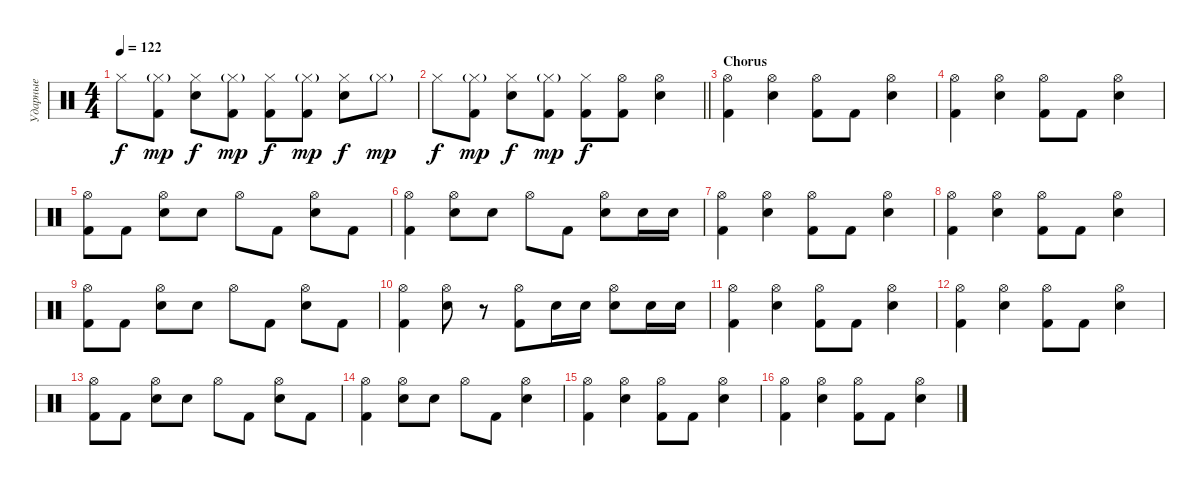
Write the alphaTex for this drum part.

\track ("Ударные" "Ударные") {instrument percussion}
\staff {score}
\articulation defaults
\ts (4 4)
\tempo 122
\clef neutral
\ks c "Hi-Hat (closed)".8{dy f}
("Hi-Hat (closed)"{g} "Kick (hit) 2").8{dy mp} ("Hi-Hat (closed)" "Electric Snare (hit)").8{dy f} ("Hi-Hat (closed)"{g} "Kick (hit) 2").8{dy mp} ("Hi-Hat (closed)" "Kick (hit) 2").8{dy f} ("Hi-Hat (closed)"{g} "Kick (hit) 2").8{dy mp} ("Hi-Hat (closed)" "Electric Snare (hit)").8{dy f} "Hi-Hat (closed)"{g}.8{dy mp} |
\barLineRight lightlight "Hi-Hat (closed)".8{dy f}
("Hi-Hat (closed)"{g} "Kick (hit) 2").8{dy mp} ("Hi-Hat (closed)" "Electric Snare (hit)").8{dy f} ("Hi-Hat (closed)"{g} "Kick (hit) 2").8{dy mp} ("Hi-Hat (closed)" "Kick (hit) 2").8{dy f} ("Hi-Hat (open)" "Kick (hit) 2").8 ("Hi-Hat (open)" "Electric Snare (hit)").4 |
\section ("" "Chorus")
("Hi-Hat (open)" "Kick (hit) 2").4 ("Hi-Hat (open)" "Electric Snare (hit)").4 ("Hi-Hat (open)" "Kick (hit) 2").8 "Kick (hit) 2".8 ("Hi-Hat (open)" "Electric Snare (hit)").4 |
("Hi-Hat (open)" "Kick (hit) 2").4 ("Hi-Hat (open)" "Electric Snare (hit)").4 ("Hi-Hat (open)" "Kick (hit) 2").8 "Kick (hit) 2".8 ("Hi-Hat (open)" "Electric Snare (hit)").4 |
("Hi-Hat (open)" "Kick (hit) 2").8 "Kick (hit) 2".8 ("Hi-Hat (open)" "Electric Snare (hit)").8 "Electric Snare (hit)".8 "Hi-Hat (open)".8 "Kick (hit) 2".8 ("Hi-Hat (open)" "Electric Snare (hit)").8 "Kick (hit) 2".8 |
("Hi-Hat (open)" "Kick (hit) 2").4 ("Hi-Hat (open)" "Electric Snare (hit)").8 "Electric Snare (hit)".8 "Hi-Hat (open)".8 "Kick (hit) 2".8 ("Hi-Hat (open)" "Electric Snare (hit)").8 "Electric Snare (hit)".16 "Electric Snare (hit)".16 |
("Hi-Hat (open)" "Kick (hit) 2").4 ("Hi-Hat (open)" "Electric Snare (hit)").4 ("Hi-Hat (open)" "Kick (hit) 2").8 "Kick (hit) 2".8 ("Hi-Hat (open)" "Electric Snare (hit)").4 |
("Hi-Hat (open)" "Kick (hit) 2").4 ("Hi-Hat (open)" "Electric Snare (hit)").4 ("Hi-Hat (open)" "Kick (hit) 2").8 "Kick (hit) 2".8 ("Hi-Hat (open)" "Electric Snare (hit)").4 |
("Hi-Hat (open)" "Kick (hit) 2").8 "Kick (hit) 2".8 ("Hi-Hat (open)" "Electric Snare (hit)").8 "Electric Snare (hit)".8 "Hi-Hat (open)".8 "Kick (hit) 2".8 ("Hi-Hat (open)" "Electric Snare (hit)").8 "Kick (hit) 2".8 |
("Hi-Hat (open)" "Kick (hit) 2").4 ("Hi-Hat (open)" "Electric Snare (hit)").8 r.8 ("Hi-Hat (open)" "Kick (hit) 2").8 "Electric Snare (hit)".16 "Electric Snare (hit)".16 ("Hi-Hat (open)" "Electric Snare (hit)").8 "Electric Snare (hit)".16 "Electric Snare (hit)".16 |
("Hi-Hat (open)" "Kick (hit) 2").4 ("Hi-Hat (open)" "Electric Snare (hit)").4 ("Hi-Hat (open)" "Kick (hit) 2").8 "Kick (hit) 2".8 ("Hi-Hat (open)" "Electric Snare (hit)").4 |
("Hi-Hat (open)" "Kick (hit) 2").4 ("Hi-Hat (open)" "Electric Snare (hit)").4 ("Hi-Hat (open)" "Kick (hit) 2").8 "Kick (hit) 2".8 ("Hi-Hat (open)" "Electric Snare (hit)").4 |
("Hi-Hat (open)" "Kick (hit) 2").8 "Kick (hit) 2".8 ("Hi-Hat (open)" "Electric Snare (hit)").8 "Electric Snare (hit)".8 "Hi-Hat (open)".8 "Kick (hit) 2".8 ("Hi-Hat (open)" "Electric Snare (hit)").8 "Kick (hit) 2".8 |
("Hi-Hat (open)" "Kick (hit) 2").4 ("Hi-Hat (open)" "Electric Snare (hit)").8 "Electric Snare (hit)".8 "Hi-Hat (open)".8 "Kick (hit) 2".8 ("Hi-Hat (open)" "Electric Snare (hit)").4 |
("Hi-Hat (open)" "Kick (hit) 2").4 ("Hi-Hat (open)" "Electric Snare (hit)").4 ("Hi-Hat (open)" "Kick (hit) 2").8 "Kick (hit) 2".8 ("Hi-Hat (open)" "Electric Snare (hit)").4 |
("Hi-Hat (open)" "Kick (hit) 2").4 ("Hi-Hat (open)" "Electric Snare (hit)").4 ("Hi-Hat (open)" "Kick (hit) 2").8 "Kick (hit) 2".8 ("Hi-Hat (open)" "Electric Snare (hit)").4
